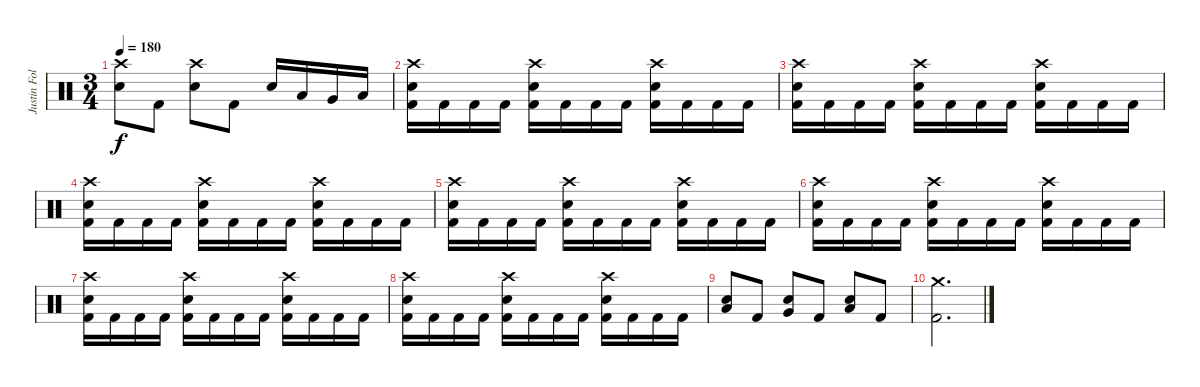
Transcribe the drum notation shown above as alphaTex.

\track ("Justin Foley" "Justin Fol") {instrument percussion}
\staff {score}
\articulation defaults
\ts (3 4)
\tempo 180
\clef neutral
\ks c
("Crash high (hit)" "Electric Snare (hit)").8{dy f} "Kick (hit) 2".8 ("Crash high (hit)" "Electric Snare (hit)").8 "Kick (hit) 2".8 "Electric Snare (hit)".16 "Low Tom (hit)".16 "Very Low Tom (hit)".16 "Low Floor Tom (hit)".16 |
("Crash high (hit)" "Electric Snare (hit)" "Kick (hit) 2").16 "Kick (hit) 2".16 "Kick (hit) 2".16 "Kick (hit) 2".16 ("Crash high (hit)" "Electric Snare (hit)" "Kick (hit) 2").16 "Kick (hit) 2".16 "Kick (hit) 2".16 "Kick (hit) 2".16 ("Crash high (hit)" "Electric Snare (hit)" "Kick (hit) 2").16 "Kick (hit) 2".16 "Kick (hit) 2".16 "Kick (hit) 2".16 |
("Crash high (hit)" "Electric Snare (hit)" "Kick (hit) 2").16 "Kick (hit) 2".16 "Kick (hit) 2".16 "Kick (hit) 2".16 ("Crash high (hit)" "Electric Snare (hit)" "Kick (hit) 2").16 "Kick (hit) 2".16 "Kick (hit) 2".16 "Kick (hit) 2".16 ("Crash high (hit)" "Electric Snare (hit)" "Kick (hit) 2").16 "Kick (hit) 2".16 "Kick (hit) 2".16 "Kick (hit) 2".16 |
("Crash high (hit)" "Electric Snare (hit)" "Kick (hit) 2").16 "Kick (hit) 2".16 "Kick (hit) 2".16 "Kick (hit) 2".16 ("Crash high (hit)" "Electric Snare (hit)" "Kick (hit) 2").16 "Kick (hit) 2".16 "Kick (hit) 2".16 "Kick (hit) 2".16 ("Crash high (hit)" "Electric Snare (hit)" "Kick (hit) 2").16 "Kick (hit) 2".16 "Kick (hit) 2".16 "Kick (hit) 2".16 |
("Crash high (hit)" "Electric Snare (hit)" "Kick (hit) 2").16 "Kick (hit) 2".16 "Kick (hit) 2".16 "Kick (hit) 2".16 ("Crash high (hit)" "Electric Snare (hit)" "Kick (hit) 2").16 "Kick (hit) 2".16 "Kick (hit) 2".16 "Kick (hit) 2".16 ("Crash high (hit)" "Electric Snare (hit)" "Kick (hit) 2").16 "Kick (hit) 2".16 "Kick (hit) 2".16 "Kick (hit) 2".16 |
("Crash high (hit)" "Electric Snare (hit)" "Kick (hit) 2").16 "Kick (hit) 2".16 "Kick (hit) 2".16 "Kick (hit) 2".16 ("Crash high (hit)" "Electric Snare (hit)" "Kick (hit) 2").16 "Kick (hit) 2".16 "Kick (hit) 2".16 "Kick (hit) 2".16 ("Crash high (hit)" "Electric Snare (hit)" "Kick (hit) 2").16 "Kick (hit) 2".16 "Kick (hit) 2".16 "Kick (hit) 2".16 |
("Crash high (hit)" "Electric Snare (hit)" "Kick (hit) 2").16 "Kick (hit) 2".16 "Kick (hit) 2".16 "Kick (hit) 2".16 ("Crash high (hit)" "Electric Snare (hit)" "Kick (hit) 2").16 "Kick (hit) 2".16 "Kick (hit) 2".16 "Kick (hit) 2".16 ("Crash high (hit)" "Electric Snare (hit)" "Kick (hit) 2").16 "Kick (hit) 2".16 "Kick (hit) 2".16 "Kick (hit) 2".16 |
("Crash high (hit)" "Electric Snare (hit)" "Kick (hit) 2").16 "Kick (hit) 2".16 "Kick (hit) 2".16 "Kick (hit) 2".16 ("Crash high (hit)" "Electric Snare (hit)" "Kick (hit) 2").16 "Kick (hit) 2".16 "Kick (hit) 2".16 "Kick (hit) 2".16 ("Crash high (hit)" "Electric Snare (hit)" "Kick (hit) 2").16 "Kick (hit) 2".16 "Kick (hit) 2".16 "Kick (hit) 2".16 |
("Electric Snare (hit)" "Low Tom (hit)").8 "Kick (hit) 2".8 ("Electric Snare (hit)" "Very Low Tom (hit)").8 "Kick (hit) 2".8 ("Electric Snare (hit)" "Low Floor Tom (hit)").8 "Kick (hit) 2".8 |
("Crash medium (hit)" "Kick (hit) 2").2{d}
